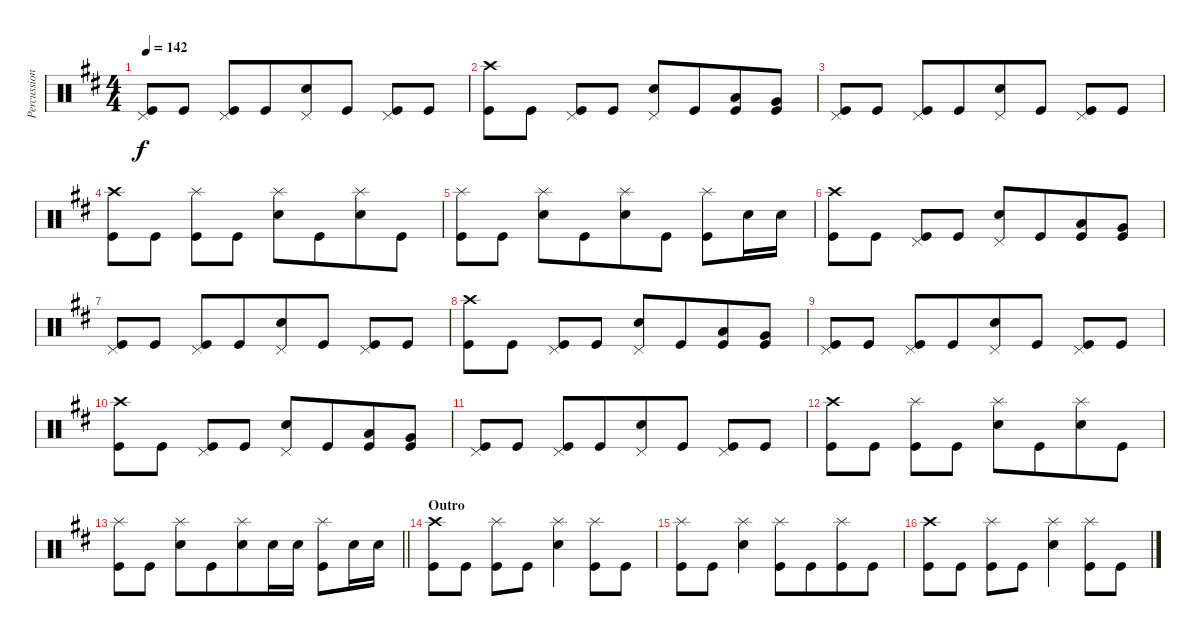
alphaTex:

\track ("Percussion" "Percussion") {instrument percussion}
\staff {score}
\articulation defaults
\ts (4 4)
\tempo 142
\clef neutral
\ks d
("Kick (hit)" "Pedal Hi-Hat (hit)").8{dy f} "Kick (hit)".8 ("Kick (hit)" "Pedal Hi-Hat (hit)").8 "Kick (hit)".8{beam merge} ("Snare (hit) 2" "Pedal Hi-Hat (hit)").8{beam merge} "Kick (hit)".8 ("Kick (hit)" "Pedal Hi-Hat (hit)").8 "Kick (hit)".8 |
("Kick (hit)" "Crash high (hit)").8{beam merge} "Kick (hit)".8 ("Kick (hit)" "Pedal Hi-Hat (hit)").8{beam merge} "Kick (hit)".8 ("Snare (hit) 2" "Pedal Hi-Hat (hit)").8{beam merge} "Kick (hit)".8{beam merge} ("Kick (hit)" "Low Tom (hit)").8 ("Kick (hit)" "Very Low Tom (hit)").8 |
("Kick (hit)" "Pedal Hi-Hat (hit)").8 "Kick (hit)".8 ("Kick (hit)" "Pedal Hi-Hat (hit)").8 "Kick (hit)".8{beam merge} ("Snare (hit) 2" "Pedal Hi-Hat (hit)").8{beam merge} "Kick (hit)".8 ("Kick (hit)" "Pedal Hi-Hat (hit)").8 "Kick (hit)".8 |
("Kick (hit)" "Crash high (hit)").8{beam merge} "Kick (hit)".8 ("Kick (hit)" "Splash (hit)").8{beam merge} "Kick (hit)".8 ("Snare (hit) 2" "Splash (hit)").8{beam merge} "Kick (hit)".8{beam merge} ("Snare (hit) 2" "Splash (hit)").8 "Kick (hit)".8 |
("Kick (hit)" "Splash (hit)").8 "Kick (hit)".8 ("Snare (hit) 2" "Splash (hit)").8 "Kick (hit)".8{beam merge} ("Snare (hit) 2" "Splash (hit)").8{beam merge} "Kick (hit)".8 ("Kick (hit)" "Splash (hit)").8 "Snare (hit) 2".16 "Snare (hit) 2".16 |
("Kick (hit)" "Crash high (hit)").8{beam merge} "Kick (hit)".8 ("Kick (hit)" "Pedal Hi-Hat (hit)").8{beam merge} "Kick (hit)".8 ("Snare (hit) 2" "Pedal Hi-Hat (hit)").8{beam merge} "Kick (hit)".8{beam merge} ("Kick (hit)" "Low Tom (hit)").8 ("Kick (hit)" "Very Low Tom (hit)").8 |
("Kick (hit)" "Pedal Hi-Hat (hit)").8 "Kick (hit)".8 ("Kick (hit)" "Pedal Hi-Hat (hit)").8 "Kick (hit)".8{beam merge} ("Snare (hit) 2" "Pedal Hi-Hat (hit)").8{beam merge} "Kick (hit)".8 ("Kick (hit)" "Pedal Hi-Hat (hit)").8 "Kick (hit)".8 |
("Kick (hit)" "Crash high (hit)").8{beam merge} "Kick (hit)".8 ("Kick (hit)" "Pedal Hi-Hat (hit)").8{beam merge} "Kick (hit)".8 ("Snare (hit) 2" "Pedal Hi-Hat (hit)").8{beam merge} "Kick (hit)".8{beam merge} ("Kick (hit)" "Low Tom (hit)").8 ("Kick (hit)" "Very Low Tom (hit)").8 |
("Kick (hit)" "Pedal Hi-Hat (hit)").8 "Kick (hit)".8 ("Kick (hit)" "Pedal Hi-Hat (hit)").8 "Kick (hit)".8{beam merge} ("Snare (hit) 2" "Pedal Hi-Hat (hit)").8{beam merge} "Kick (hit)".8 ("Kick (hit)" "Pedal Hi-Hat (hit)").8 "Kick (hit)".8 |
("Kick (hit)" "Crash high (hit)").8{beam merge} "Kick (hit)".8 ("Kick (hit)" "Pedal Hi-Hat (hit)").8{beam merge} "Kick (hit)".8 ("Snare (hit) 2" "Pedal Hi-Hat (hit)").8{beam merge} "Kick (hit)".8{beam merge} ("Kick (hit)" "Low Tom (hit)").8 ("Kick (hit)" "Very Low Tom (hit)").8 |
("Kick (hit)" "Pedal Hi-Hat (hit)").8 "Kick (hit)".8 ("Kick (hit)" "Pedal Hi-Hat (hit)").8 "Kick (hit)".8{beam merge} ("Snare (hit) 2" "Pedal Hi-Hat (hit)").8{beam merge} "Kick (hit)".8 ("Kick (hit)" "Pedal Hi-Hat (hit)").8 "Kick (hit)".8 |
("Kick (hit)" "Crash high (hit)").8{beam merge} "Kick (hit)".8 ("Kick (hit)" "Splash (hit)").8{beam merge} "Kick (hit)".8 ("Snare (hit) 2" "Splash (hit)").8{beam merge} "Kick (hit)".8{beam merge} ("Snare (hit) 2" "Splash (hit)").8 "Kick (hit)".8 |
\barLineRight lightlight
("Kick (hit)" "Splash (hit)").8 "Kick (hit)".8 ("Snare (hit) 2" "Splash (hit)").8 "Kick (hit)".8{beam merge} ("Snare (hit) 2" "Splash (hit)").8{beam merge} "Snare (hit) 2".16 "Snare (hit) 2".16 ("Kick (hit)" "Splash (hit)").8 "Snare (hit) 2".16 "Snare (hit) 2".16 |
\section ("" "Outro")
("Kick (hit)" "Crash high (hit)").8 "Kick (hit)".8 ("Kick (hit)" "Splash (hit)").8 "Kick (hit)".8{beam merge} ("Snare (hit) 2" "Splash (hit)").4 ("Kick (hit)" "Splash (hit)").8 "Kick (hit)".8 |
("Kick (hit)" "Splash (hit)").8 "Kick (hit)".8 ("Snare (hit) 2" "Splash (hit)").4 ("Kick (hit)" "Splash (hit)").8 "Kick (hit)".8{beam merge} ("Kick (hit)" "Splash (hit)").8 "Kick (hit)".8 |
("Kick (hit)" "Crash high (hit)").8 "Kick (hit)".8 ("Kick (hit)" "Splash (hit)").8 "Kick (hit)".8{beam merge} ("Snare (hit) 2" "Splash (hit)").4 ("Kick (hit)" "Splash (hit)").8 "Kick (hit)".8
